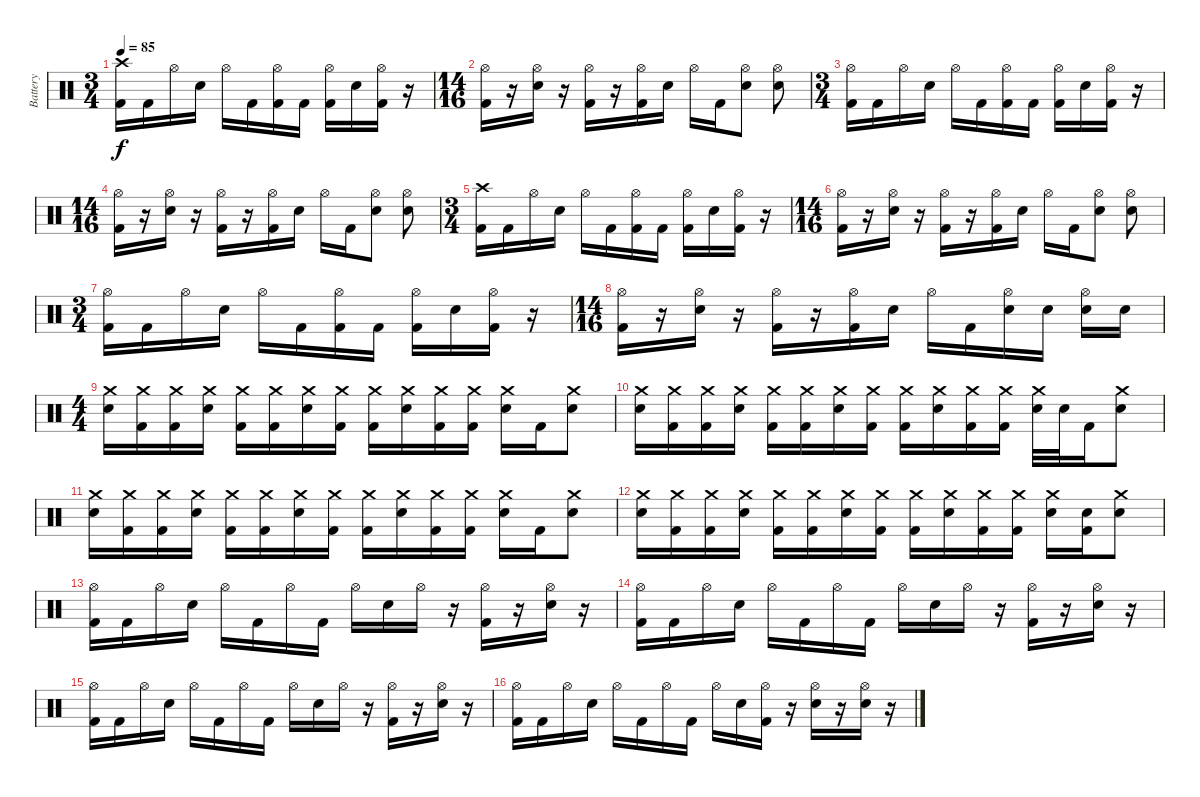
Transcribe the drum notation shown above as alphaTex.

\track ("Battery" "Battery") {instrument percussion}
\staff {score}
\articulation defaults
\ts (3 4)
\tempo 85
\clef neutral
\ks c
("Crash high (hit)" "Kick (hit) 2").16{dy f} "Kick (hit) 2".16 "Hi-Hat (open)".16 "Snare (hit) 2".16 "Hi-Hat (open)".16 "Kick (hit) 2".16 ("Hi-Hat (open)" "Kick (hit) 2").16 "Kick (hit) 2".16 ("Hi-Hat (open)" "Kick (hit) 2").16 "Snare (hit) 2".16 ("Hi-Hat (open)" "Kick (hit) 2").16 r.16 |
\ts (14 16)
("Hi-Hat (open)" "Kick (hit) 2").16 r.16 ("Snare (hit) 2" "Hi-Hat (open)").16 r.16 ("Hi-Hat (open)" "Kick (hit) 2").16 r.16 ("Hi-Hat (open)" "Kick (hit) 2").16 "Snare (hit) 2".16 "Hi-Hat (open)".16 "Kick (hit) 2".16 ("Snare (hit) 2" "Hi-Hat (open)").8 ("Snare (hit) 2" "Hi-Hat (open)").8 |
\ts (3 4)
("Hi-Hat (open)" "Kick (hit) 2").16 "Kick (hit) 2".16 "Hi-Hat (open)".16 "Snare (hit) 2".16 "Hi-Hat (open)".16 "Kick (hit) 2".16 ("Hi-Hat (open)" "Kick (hit) 2").16 "Kick (hit) 2".16 ("Hi-Hat (open)" "Kick (hit) 2").16 "Snare (hit) 2".16 ("Hi-Hat (open)" "Kick (hit) 2").16 r.16 |
\ts (14 16)
("Hi-Hat (open)" "Kick (hit) 2").16 r.16 ("Snare (hit) 2" "Hi-Hat (open)").16 r.16 ("Hi-Hat (open)" "Kick (hit) 2").16 r.16 ("Hi-Hat (open)" "Kick (hit) 2").16 "Snare (hit) 2".16 "Hi-Hat (open)".16 "Kick (hit) 2".16 ("Snare (hit) 2" "Hi-Hat (open)").8 ("Snare (hit) 2" "Hi-Hat (open)").8 |
\ts (3 4)
("Crash high (hit)" "Kick (hit) 2").16 "Kick (hit) 2".16 "Hi-Hat (open)".16 "Snare (hit) 2".16 "Hi-Hat (open)".16 "Kick (hit) 2".16 ("Hi-Hat (open)" "Kick (hit) 2").16 "Kick (hit) 2".16 ("Hi-Hat (open)" "Kick (hit) 2").16 "Snare (hit) 2".16 ("Hi-Hat (open)" "Kick (hit) 2").16 r.16 |
\ts (14 16)
("Hi-Hat (open)" "Kick (hit) 2").16 r.16 ("Snare (hit) 2" "Hi-Hat (open)").16 r.16 ("Hi-Hat (open)" "Kick (hit) 2").16 r.16 ("Hi-Hat (open)" "Kick (hit) 2").16 "Snare (hit) 2".16 "Hi-Hat (open)".16 "Kick (hit) 2".16 ("Snare (hit) 2" "Hi-Hat (open)").8 ("Snare (hit) 2" "Hi-Hat (open)").8 |
\ts (3 4)
("Hi-Hat (open)" "Kick (hit) 2").16 "Kick (hit) 2".16 "Hi-Hat (open)".16 "Snare (hit) 2".16 "Hi-Hat (open)".16 "Kick (hit) 2".16 ("Hi-Hat (open)" "Kick (hit) 2").16 "Kick (hit) 2".16 ("Hi-Hat (open)" "Kick (hit) 2").16 "Snare (hit) 2".16 ("Hi-Hat (open)" "Kick (hit) 2").16 r.16 |
\ts (14 16)
("Hi-Hat (open)" "Kick (hit) 2").16 r.16 ("Snare (hit) 2" "Hi-Hat (open)").16 r.16 ("Hi-Hat (open)" "Kick (hit) 2").16 r.16 ("Hi-Hat (open)" "Kick (hit) 2").16 "Snare (hit) 2".16 "Hi-Hat (open)".16 "Kick (hit) 2".16 ("Snare (hit) 2" "Hi-Hat (open)").16 "Snare (hit) 2".16 ("Snare (hit) 2" "Hi-Hat (open)").16 "Snare (hit) 2".16 |
\ts (4 4)
("Snare (hit) 2" "Crash medium (hit)").16 ("Crash medium (hit)" "Kick (hit) 2").16 ("Crash medium (hit)" "Kick (hit) 2").16 ("Snare (hit) 2" "Crash medium (hit)").16 ("Crash medium (hit)" "Kick (hit) 2").16 ("Crash medium (hit)" "Kick (hit) 2").16 ("Snare (hit) 2" "Crash medium (hit)").16 ("Crash medium (hit)" "Kick (hit) 2").16 ("Crash medium (hit)" "Kick (hit) 2").16 ("Snare (hit) 2" "Crash medium (hit)").16 ("Crash medium (hit)" "Kick (hit) 2").16 ("Crash medium (hit)" "Kick (hit) 2").16 ("Snare (hit) 2" "Crash medium (hit)").16 "Kick (hit) 2".16 ("Snare (hit) 2" "Crash medium (hit)").8 |
("Snare (hit) 2" "Crash medium (hit)").16 ("Crash medium (hit)" "Kick (hit) 2").16 ("Crash medium (hit)" "Kick (hit) 2").16 ("Snare (hit) 2" "Crash medium (hit)").16 ("Crash medium (hit)" "Kick (hit) 2").16 ("Crash medium (hit)" "Kick (hit) 2").16 ("Snare (hit) 2" "Crash medium (hit)").16 ("Crash medium (hit)" "Kick (hit) 2").16 ("Crash medium (hit)" "Kick (hit) 2").16 ("Snare (hit) 2" "Crash medium (hit)").16 ("Crash medium (hit)" "Kick (hit) 2").16 ("Crash medium (hit)" "Kick (hit) 2").16 ("Snare (hit) 2" "Crash medium (hit)").32 "Snare (hit) 2".32 "Kick (hit) 2".16 ("Snare (hit) 2" "Crash medium (hit)").8 |
("Snare (hit) 2" "Crash medium (hit)").16 ("Crash medium (hit)" "Kick (hit) 2").16 ("Crash medium (hit)" "Kick (hit) 2").16 ("Snare (hit) 2" "Crash medium (hit)").16 ("Crash medium (hit)" "Kick (hit) 2").16 ("Crash medium (hit)" "Kick (hit) 2").16 ("Snare (hit) 2" "Crash medium (hit)").16 ("Crash medium (hit)" "Kick (hit) 2").16 ("Crash medium (hit)" "Kick (hit) 2").16 ("Snare (hit) 2" "Crash medium (hit)").16 ("Crash medium (hit)" "Kick (hit) 2").16 ("Crash medium (hit)" "Kick (hit) 2").16 ("Snare (hit) 2" "Crash medium (hit)").16 "Kick (hit) 2".16 ("Snare (hit) 2" "Crash medium (hit)").8 |
("Snare (hit) 2" "Crash medium (hit)").16 ("Crash medium (hit)" "Kick (hit) 2").16 ("Crash medium (hit)" "Kick (hit) 2").16 ("Snare (hit) 2" "Crash medium (hit)").16 ("Crash medium (hit)" "Kick (hit) 2").16 ("Crash medium (hit)" "Kick (hit) 2").16 ("Snare (hit) 2" "Crash medium (hit)").16 ("Crash medium (hit)" "Kick (hit) 2").16 ("Crash medium (hit)" "Kick (hit) 2").16 ("Snare (hit) 2" "Crash medium (hit)").16 ("Crash medium (hit)" "Kick (hit) 2").16 ("Crash medium (hit)" "Kick (hit) 2").16 ("Snare (hit) 2" "Crash medium (hit)").16 ("Snare (hit) 2" "Kick (hit) 2").16 ("Snare (hit) 2" "Crash medium (hit)").8 |
("Hi-Hat (open)" "Kick (hit) 2").16 "Kick (hit) 2".16 "Hi-Hat (open)".16 "Snare (hit) 2".16 "Hi-Hat (open)".16 "Kick (hit) 2".16 "Hi-Hat (open)".16 "Kick (hit) 2".16 "Hi-Hat (open)".16 "Snare (hit) 2".16 "Hi-Hat (open)".16 r.16 ("Hi-Hat (open)" "Kick (hit) 2").16 r.16 ("Snare (hit) 2" "Hi-Hat (open)").16 r.16 |
("Hi-Hat (open)" "Kick (hit) 2").16 "Kick (hit) 2".16 "Hi-Hat (open)".16 "Snare (hit) 2".16 "Hi-Hat (open)".16 "Kick (hit) 2".16 "Hi-Hat (open)".16 "Kick (hit) 2".16 "Hi-Hat (open)".16 "Snare (hit) 2".16 "Hi-Hat (open)".16 r.16 ("Hi-Hat (open)" "Kick (hit) 2").16 r.16 ("Snare (hit) 2" "Hi-Hat (open)").16 r.16 |
("Hi-Hat (open)" "Kick (hit) 2").16 "Kick (hit) 2".16 "Hi-Hat (open)".16 "Snare (hit) 2".16 "Hi-Hat (open)".16 "Kick (hit) 2".16 "Hi-Hat (open)".16 "Kick (hit) 2".16 "Hi-Hat (open)".16 "Snare (hit) 2".16 "Hi-Hat (open)".16 r.16 ("Hi-Hat (open)" "Kick (hit) 2").16 r.16 ("Snare (hit) 2" "Hi-Hat (open)").16 r.16 |
("Hi-Hat (open)" "Kick (hit) 2").16 "Kick (hit) 2".16 "Hi-Hat (open)".16 "Snare (hit) 2".16 "Hi-Hat (open)".16 "Kick (hit) 2".16 "Hi-Hat (open)".16 "Kick (hit) 2".16 "Hi-Hat (open)".16 "Snare (hit) 2".16 ("Hi-Hat (open)" "Kick (hit) 2").16 r.16 ("Snare (hit) 2" "Hi-Hat (open)").16 r.16 ("Snare (hit) 2" "Hi-Hat (open)").16 r.16
